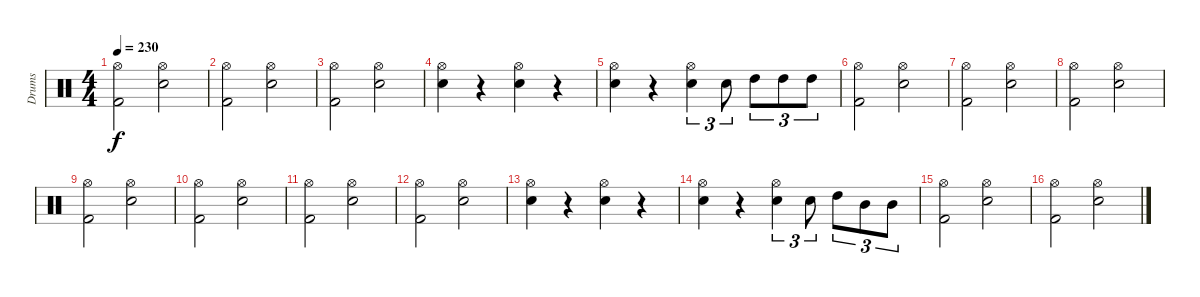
\track ("Drums" "Drums") {instrument percussion}
\staff {score}
\articulation defaults
\ts (4 4)
\tempo 230
\clef neutral
\ks c
("Hi-Hat (open)" "Kick (hit) 2").2{dy f} ("Hi-Hat (open)" "Electric Snare (hit)").2 |
("Hi-Hat (open)" "Kick (hit) 2").2 ("Hi-Hat (open)" "Electric Snare (hit)").2 |
("Hi-Hat (open)" "Kick (hit) 2").2 ("Hi-Hat (open)" "Electric Snare (hit)").2 |
("Hi-Hat (open)" "Electric Snare (hit)").4 r.4 ("Hi-Hat (open)" "Electric Snare (hit)").4 r.4 |
("Hi-Hat (open)" "Electric Snare (hit)").4 r.4 ("Hi-Hat (open)" "Electric Snare (hit)").4{tu (3 2)} "Electric Snare (hit)".8{tu (3 2)} "High Tom (hit)".8{tu (3 2)} "High Tom (hit)".8{tu (3 2)} "High Tom (hit)".8{tu (3 2)} |
("Hi-Hat (open)" "Kick (hit) 2").2 ("Hi-Hat (open)" "Electric Snare (hit)").2 |
("Hi-Hat (open)" "Kick (hit) 2").2 ("Hi-Hat (open)" "Electric Snare (hit)").2 |
("Hi-Hat (open)" "Kick (hit) 2").2 ("Hi-Hat (open)" "Electric Snare (hit)").2 |
("Hi-Hat (open)" "Kick (hit) 2").2 ("Hi-Hat (open)" "Electric Snare (hit)").2 |
("Hi-Hat (open)" "Kick (hit) 2").2 ("Hi-Hat (open)" "Electric Snare (hit)").2 |
("Hi-Hat (open)" "Kick (hit) 2").2 ("Hi-Hat (open)" "Electric Snare (hit)").2 |
("Hi-Hat (open)" "Kick (hit) 2").2 ("Hi-Hat (open)" "Electric Snare (hit)").2 |
("Hi-Hat (open)" "Electric Snare (hit)").4 r.4 ("Hi-Hat (open)" "Electric Snare (hit)").4 r.4 |
("Hi-Hat (open)" "Electric Snare (hit)").4 r.4 ("Hi-Hat (open)" "Electric Snare (hit)").4{tu (3 2)} "Electric Snare (hit)".8{tu (3 2)} "High Tom (hit)".8{tu (3 2)} "Mid Tom (hit)".8{tu (3 2)} "Mid Tom (hit)".8{tu (3 2)} |
("Hi-Hat (open)" "Kick (hit) 2").2 ("Hi-Hat (open)" "Electric Snare (hit)").2 |
("Hi-Hat (open)" "Kick (hit) 2").2 ("Hi-Hat (open)" "Electric Snare (hit)").2
